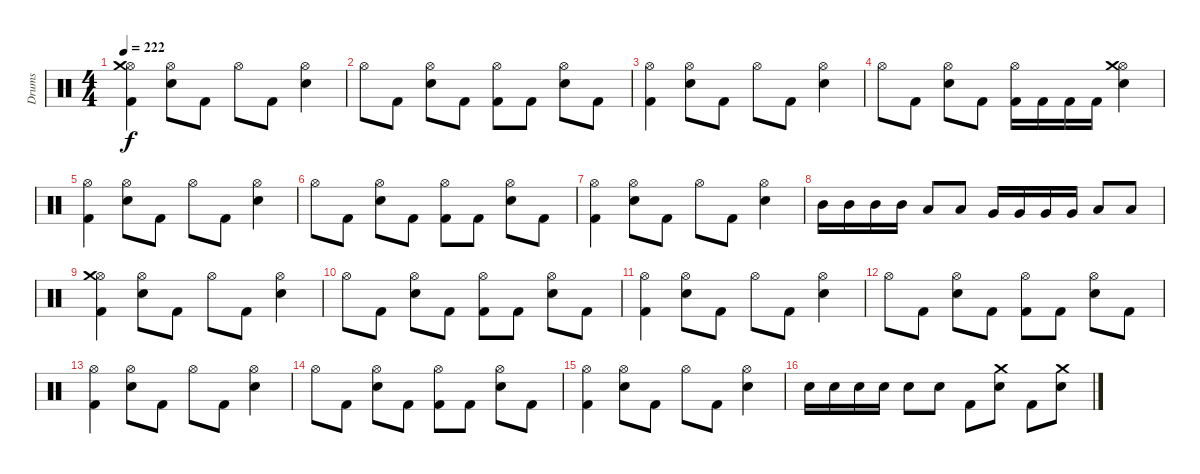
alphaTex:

\track ("Drums" "Drums") {instrument percussion}
\staff {score}
\articulation defaults
\ts (4 4)
\tempo 222
\clef neutral
\ks c
("Kick (hit) 2" "Hi-Hat (open)" "Crash medium (hit)").4{dy f} ("Snare (hit) 2" "Hi-Hat (open)").8 "Kick (hit) 2".8 "Hi-Hat (open)".8 "Kick (hit) 2".8 ("Snare (hit) 2" "Hi-Hat (open)").4 |
"Hi-Hat (open)".8 "Kick (hit) 2".8 ("Snare (hit) 2" "Hi-Hat (open)").8 "Kick (hit) 2".8 ("Kick (hit) 2" "Hi-Hat (open)").8 "Kick (hit) 2".8 ("Snare (hit) 2" "Hi-Hat (open)").8 "Kick (hit) 2".8 |
("Kick (hit) 2" "Hi-Hat (open)").4 ("Snare (hit) 2" "Hi-Hat (open)").8 "Kick (hit) 2".8 "Hi-Hat (open)".8 "Kick (hit) 2".8 ("Snare (hit) 2" "Hi-Hat (open)").4 |
"Hi-Hat (open)".8 "Kick (hit) 2".8 ("Snare (hit) 2" "Hi-Hat (open)").8 "Kick (hit) 2".8 ("Kick (hit) 2" "Hi-Hat (open)").16 "Kick (hit) 2".16 "Kick (hit) 2".16 "Kick (hit) 2".16 ("Snare (hit) 2" "Hi-Hat (open)" "Crash medium (hit)").4 |
("Kick (hit) 2" "Hi-Hat (open)").4 ("Snare (hit) 2" "Hi-Hat (open)").8 "Kick (hit) 2".8 "Hi-Hat (open)".8 "Kick (hit) 2".8 ("Snare (hit) 2" "Hi-Hat (open)").4 |
"Hi-Hat (open)".8 "Kick (hit) 2".8 ("Snare (hit) 2" "Hi-Hat (open)").8 "Kick (hit) 2".8 ("Kick (hit) 2" "Hi-Hat (open)").8 "Kick (hit) 2".8 ("Snare (hit) 2" "Hi-Hat (open)").8 "Kick (hit) 2".8 |
("Kick (hit) 2" "Hi-Hat (open)").4 ("Snare (hit) 2" "Hi-Hat (open)").8 "Kick (hit) 2".8 "Hi-Hat (open)".8 "Kick (hit) 2".8 ("Snare (hit) 2" "Hi-Hat (open)").4 |
"Mid Tom (hit)".16 "Mid Tom (hit)".16 "Mid Tom (hit)".16 "Mid Tom (hit)".16 "Low Tom (hit)".8 "Low Tom (hit)".8 "Very Low Tom (hit)".16 "Very Low Tom (hit)".16 "Very Low Tom (hit)".16 "Very Low Tom (hit)".16 "Low Floor Tom (hit)".8 "Low Floor Tom (hit)".8 |
("Kick (hit) 2" "Hi-Hat (open)" "Crash medium (hit)").4 ("Snare (hit) 2" "Hi-Hat (open)").8 "Kick (hit) 2".8 "Hi-Hat (open)".8 "Kick (hit) 2".8 ("Snare (hit) 2" "Hi-Hat (open)").4 |
"Hi-Hat (open)".8 "Kick (hit) 2".8 ("Snare (hit) 2" "Hi-Hat (open)").8 "Kick (hit) 2".8 ("Kick (hit) 2" "Hi-Hat (open)").8 "Kick (hit) 2".8 ("Snare (hit) 2" "Hi-Hat (open)").8 "Kick (hit) 2".8 |
("Kick (hit) 2" "Hi-Hat (open)").4 ("Snare (hit) 2" "Hi-Hat (open)").8 "Kick (hit) 2".8 "Hi-Hat (open)".8 "Kick (hit) 2".8 ("Snare (hit) 2" "Hi-Hat (open)").4 |
"Hi-Hat (open)".8 "Kick (hit) 2".8 ("Snare (hit) 2" "Hi-Hat (open)").8 "Kick (hit) 2".8 ("Kick (hit) 2" "Hi-Hat (open)").8 "Kick (hit) 2".8 ("Snare (hit) 2" "Hi-Hat (open)").8 "Kick (hit) 2".8 |
("Kick (hit) 2" "Hi-Hat (open)").4 ("Snare (hit) 2" "Hi-Hat (open)").8 "Kick (hit) 2".8 "Hi-Hat (open)".8 "Kick (hit) 2".8 ("Snare (hit) 2" "Hi-Hat (open)").4 |
"Hi-Hat (open)".8 "Kick (hit) 2".8 ("Snare (hit) 2" "Hi-Hat (open)").8 "Kick (hit) 2".8 ("Kick (hit) 2" "Hi-Hat (open)").8 "Kick (hit) 2".8 ("Snare (hit) 2" "Hi-Hat (open)").8 "Kick (hit) 2".8 |
("Kick (hit) 2" "Hi-Hat (open)").4 ("Snare (hit) 2" "Hi-Hat (open)").8 "Kick (hit) 2".8 "Hi-Hat (open)".8 "Kick (hit) 2".8 ("Snare (hit) 2" "Hi-Hat (open)").4 |
"Snare (hit) 2".16 "Snare (hit) 2".16 "Snare (hit) 2".16 "Snare (hit) 2".16 "Snare (hit) 2".8 "Snare (hit) 2".8 "Kick (hit) 2".8 ("Snare (hit) 2" "Crash medium (hit)").8 "Kick (hit) 2".8 ("Snare (hit) 2" "Crash medium (hit)").8
